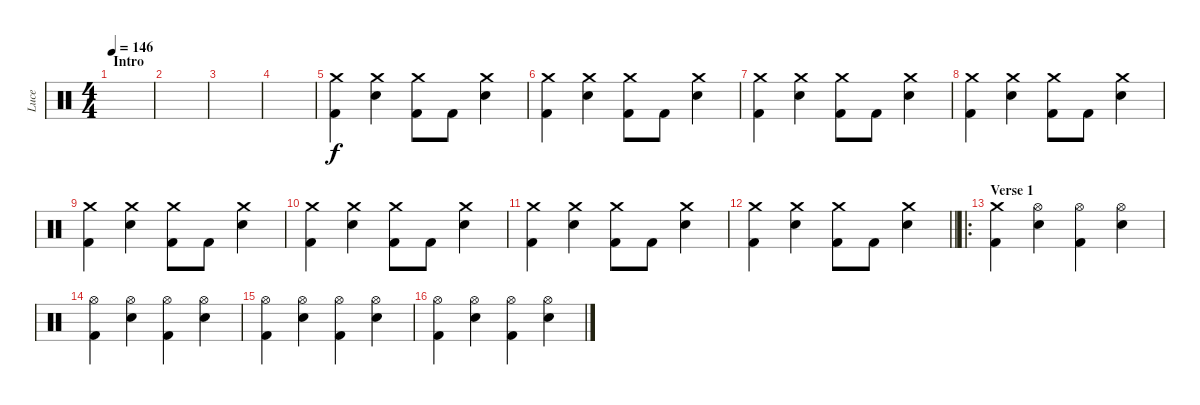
\track ("Luce" "Luce") {instrument percussion}
\staff {score}
\articulation defaults
\ts (4 4)
\section ("" "Intro")
\tempo 146
\clef neutral
\ks c
|
|
|
|
("Crash medium (hit)" "Kick (hit) 2").4 ("Crash medium (hit)" "Electric Snare (hit)").4 ("Kick (hit) 2" "Crash medium (hit)").8 "Kick (hit) 2".8 ("Crash medium (hit)" "Electric Snare (hit)").4 |
("Kick (hit) 2" "Crash medium (hit)").4 ("Crash medium (hit)" "Electric Snare (hit)").4 ("Kick (hit) 2" "Crash medium (hit)").8 "Kick (hit) 2".8 ("Crash medium (hit)" "Electric Snare (hit)").4 |
("Kick (hit) 2" "Crash medium (hit)").4 ("Electric Snare (hit)" "Crash medium (hit)").4 ("Kick (hit) 2" "Crash medium (hit)").8 "Kick (hit) 2".8 ("Electric Snare (hit)" "Crash medium (hit)").4 |
("Kick (hit) 2" "Crash medium (hit)").4 ("Electric Snare (hit)" "Crash medium (hit)").4 ("Kick (hit) 2" "Crash medium (hit)").8 "Kick (hit) 2".8 ("Electric Snare (hit)" "Crash medium (hit)").4 |
("Kick (hit) 2" "Crash medium (hit)").4 ("Crash medium (hit)" "Electric Snare (hit)").4 ("Kick (hit) 2" "Crash medium (hit)").8 "Kick (hit) 2".8 ("Crash medium (hit)" "Electric Snare (hit)").4 |
("Kick (hit) 2" "Crash medium (hit)").4 ("Crash medium (hit)" "Electric Snare (hit)").4 ("Kick (hit) 2" "Crash medium (hit)").8 "Kick (hit) 2".8 ("Crash medium (hit)" "Electric Snare (hit)").4 |
("Kick (hit) 2" "Crash medium (hit)").4 ("Electric Snare (hit)" "Crash medium (hit)").4 ("Kick (hit) 2" "Crash medium (hit)").8 "Kick (hit) 2".8 ("Electric Snare (hit)" "Crash medium (hit)").4 |
\barLineRight lightlight
("Kick (hit) 2" "Crash medium (hit)").4 ("Electric Snare (hit)" "Crash medium (hit)").4 ("Kick (hit) 2" "Crash medium (hit)").8 "Kick (hit) 2".8 ("Electric Snare (hit)" "Crash medium (hit)").4 |
\ro
\section ("" "Verse 1")
("Crash medium (hit)" "Kick (hit) 2").4 ("Hi-Hat (open)" "Electric Snare (hit)").4 ("Hi-Hat (open)" "Kick (hit) 2").4 ("Hi-Hat (open)" "Electric Snare (hit)").4 |
("Hi-Hat (open)" "Kick (hit) 2").4 ("Hi-Hat (open)" "Electric Snare (hit)").4 ("Hi-Hat (open)" "Kick (hit) 2").4 ("Hi-Hat (open)" "Electric Snare (hit)").4 |
("Kick (hit) 2" "Hi-Hat (open)").4 ("Electric Snare (hit)" "Hi-Hat (open)").4 ("Kick (hit) 2" "Hi-Hat (open)").4 ("Electric Snare (hit)" "Hi-Hat (open)").4 |
("Kick (hit) 2" "Hi-Hat (open)").4 ("Electric Snare (hit)" "Hi-Hat (open)").4 ("Kick (hit) 2" "Hi-Hat (open)").4 ("Electric Snare (hit)" "Hi-Hat (open)").4
